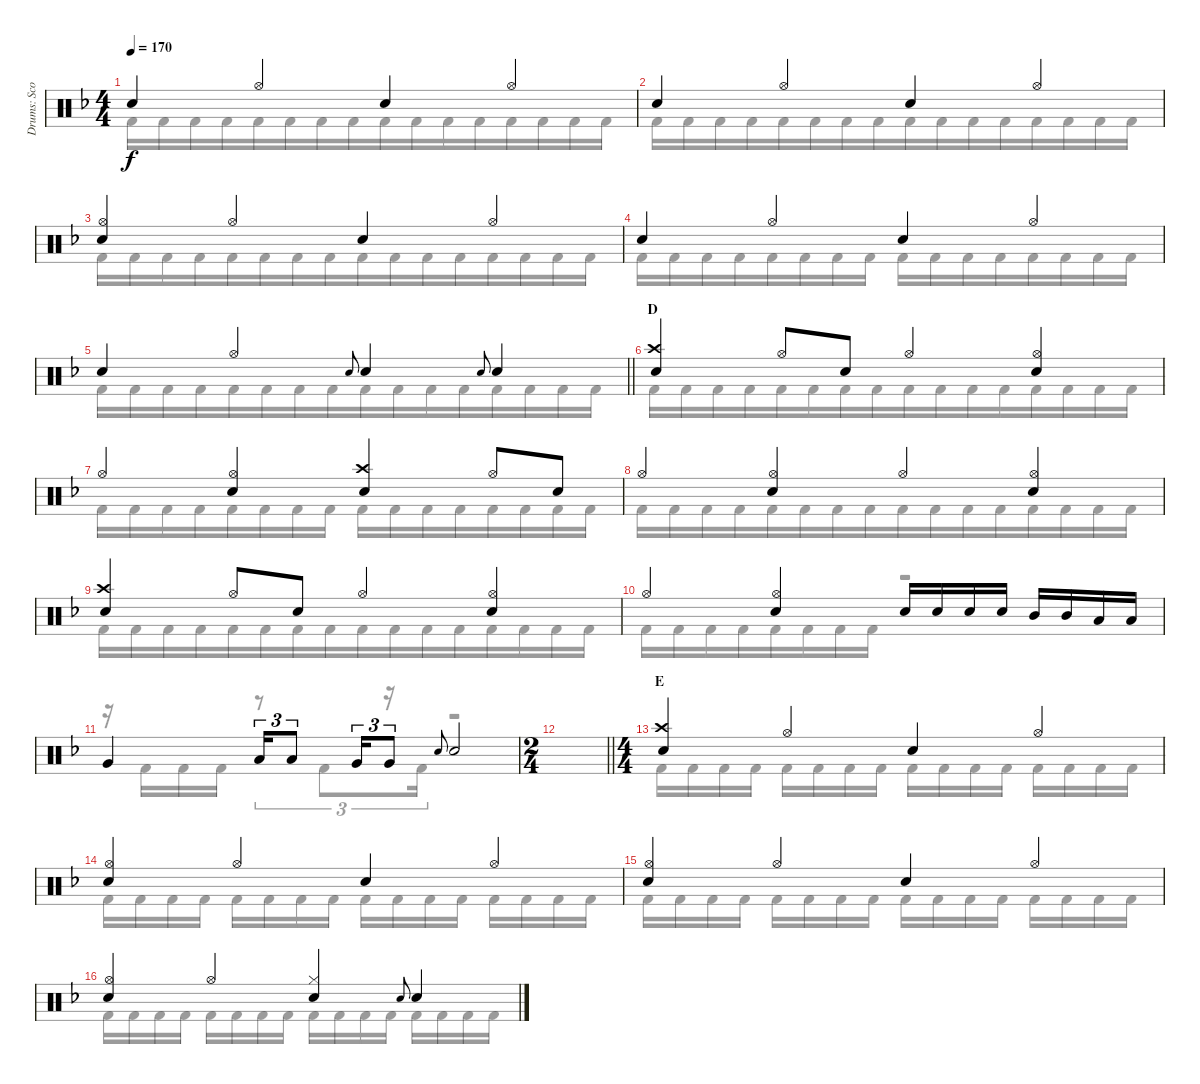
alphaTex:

\track ("Drums: Scott" "Drums: Sco") {instrument percussion}
\staff {score}
\articulation defaults
\voice
\ts (4 4)
\tempo 170
\clef neutral
\ks f "Snare (hit) 2".4{dy f} "Hi-Hat (open)".4 "Snare (hit) 2".4 "Hi-Hat (open)".4
|
"Snare (hit) 2".4 "Hi-Hat (open)".4 "Snare (hit) 2".4 "Hi-Hat (open)".4 |
("Hi-Hat (open)" "Snare (hit) 2").4 "Hi-Hat (open)".4 "Snare (hit) 2".4 "Hi-Hat (open)".4 |
"Snare (hit) 2".4 "Hi-Hat (open)".4 "Snare (hit) 2".4 "Hi-Hat (open)".4 |
\barLineRight lightlight "Snare (hit) 2".4 "Hi-Hat (open)".4 "Electric Snare (hit)".8{gr onbeat} "Snare (hit) 2".4 "Electric Snare (hit)".8{gr onbeat} "Snare (hit) 2".4
|
\section ("" "D")
("Crash high (hit)" "Snare (hit) 2").4 "Hi-Hat (open)".8 "Snare (hit) 2".8 "Hi-Hat (open)".4 ("Hi-Hat (open)" "Snare (hit) 2").4 |
"Hi-Hat (open)".4 ("Hi-Hat (open)" "Snare (hit) 2").4 ("Crash high (hit)" "Snare (hit) 2").4 "Hi-Hat (open)".8 "Snare (hit) 2".8 |
"Hi-Hat (open)".4 ("Hi-Hat (open)" "Snare (hit) 2").4 "Hi-Hat (open)".4 ("Hi-Hat (open)" "Snare (hit) 2").4 |
("Crash high (hit)" "Snare (hit) 2").4 "Hi-Hat (open)".8 "Snare (hit) 2".8 "Hi-Hat (open)".4 ("Hi-Hat (open)" "Snare (hit) 2").4 |
"Hi-Hat (open)".4 ("Hi-Hat (open)" "Snare (hit) 2").4 "Snare (hit) 2".16 "Snare (hit) 2".16{beam merge} "Snare (hit) 2".16 "Snare (hit) 2".16 "Mid Tom (hit)".16 "Mid Tom (hit)".16{beam merge} "Low Tom (hit)".16 "Low Tom (hit)".16 |
"Very Low Tom (hit)".4 "Low Tom (hit)".16{tu (3 2)} "Low Tom (hit)".8{tu (3 2)} "Very Low Tom (hit)".16{tu (3 2)} "Very Low Tom (hit)".8{tu (3 2)} "Electric Snare (hit)".8{gr onbeat} "Snare (hit) 2".2 |
\ts (2 4)
\barLineRight lightlight
|
\ts (4 4)
\section ("" "E")
("Crash high (hit)" "Snare (hit) 2").4 "Hi-Hat (open)".4 "Snare (hit) 2".4 "Hi-Hat (open)".4 |
("Hi-Hat (open)" "Snare (hit) 2").4 "Hi-Hat (open)".4 "Snare (hit) 2".4 "Hi-Hat (open)".4 |
("Hi-Hat (open)" "Snare (hit) 2").4 "Hi-Hat (open)".4 "Snare (hit) 2".4 "Hi-Hat (open)".4 |
("Hi-Hat (open)" "Snare (hit) 2").4 "Hi-Hat (open)".4 ("Hi-Hat (closed)" "Snare (hit) 2").4 "Electric Snare (hit)".8{gr onbeat} "Snare (hit) 2".4
\voice
\clef neutral
\ottava regular
\simile none
\ks f "Kick (hit) 2".16{dy f beam merge} "Kick (hit) 2".16{beam merge} "Kick (hit) 2".16{beam merge} "Kick (hit) 2".16{beam merge} "Kick (hit) 2".16{beam merge} "Kick (hit) 2".16{beam merge} "Kick (hit) 2".16{beam merge} "Kick (hit) 2".16{beam merge} "Kick (hit) 2".16{beam merge} "Kick (hit) 2".16{beam merge} "Kick (hit) 2".16{beam merge} "Kick (hit) 2".16{beam merge} "Kick (hit) 2".16{beam merge} "Kick (hit) 2".16{beam merge} "Kick (hit) 2".16{beam merge} "Kick (hit) 2".16
|
"Kick (hit) 2".16{beam merge} "Kick (hit) 2".16{beam merge} "Kick (hit) 2".16{beam merge} "Kick (hit) 2".16{beam merge} "Kick (hit) 2".16{beam merge} "Kick (hit) 2".16{beam merge} "Kick (hit) 2".16{beam merge} "Kick (hit) 2".16{beam merge} "Kick (hit) 2".16{beam merge} "Kick (hit) 2".16{beam merge} "Kick (hit) 2".16{beam merge} "Kick (hit) 2".16{beam merge} "Kick (hit) 2".16{beam merge} "Kick (hit) 2".16{beam merge} "Kick (hit) 2".16{beam merge} "Kick (hit) 2".16 |
"Kick (hit) 2".16{beam merge} "Kick (hit) 2".16{beam merge} "Kick (hit) 2".16{beam merge} "Kick (hit) 2".16{beam merge} "Kick (hit) 2".16{beam merge} "Kick (hit) 2".16{beam merge} "Kick (hit) 2".16{beam merge} "Kick (hit) 2".16{beam merge} "Kick (hit) 2".16{beam merge} "Kick (hit) 2".16{beam merge} "Kick (hit) 2".16{beam merge} "Kick (hit) 2".16{beam merge} "Kick (hit) 2".16{beam merge} "Kick (hit) 2".16{beam merge} "Kick (hit) 2".16{beam merge} "Kick (hit) 2".16 |
"Kick (hit) 2".16{beam merge} "Kick (hit) 2".16{beam merge} "Kick (hit) 2".16{beam merge} "Kick (hit) 2".16{beam merge} "Kick (hit) 2".16{beam merge} "Kick (hit) 2".16{beam merge} "Kick (hit) 2".16{beam merge} "Kick (hit) 2".16 "Kick (hit) 2".16{beam merge} "Kick (hit) 2".16{beam merge} "Kick (hit) 2".16{beam merge} "Kick (hit) 2".16{beam merge} "Kick (hit) 2".16{beam merge} "Kick (hit) 2".16{beam merge} "Kick (hit) 2".16{beam merge} "Kick (hit) 2".16 |
\barLineRight lightlight "Kick (hit) 2".16{beam merge} "Kick (hit) 2".16{beam merge} "Kick (hit) 2".16{beam merge} "Kick (hit) 2".16{beam merge} "Kick (hit) 2".16{beam merge} "Kick (hit) 2".16{beam merge} "Kick (hit) 2".16{beam merge} "Kick (hit) 2".16{beam merge} "Kick (hit) 2".16{beam merge} "Kick (hit) 2".16{beam merge} "Kick (hit) 2".16{beam merge} "Kick (hit) 2".16{beam merge} "Kick (hit) 2".16{beam merge} "Kick (hit) 2".16{beam merge} "Kick (hit) 2".16{beam merge} "Kick (hit) 2".16
|
"Kick (hit) 2".16{beam merge} "Kick (hit) 2".16{beam merge} "Kick (hit) 2".16{beam merge} "Kick (hit) 2".16{beam merge} "Kick (hit) 2".16{beam merge} "Kick (hit) 2".16{beam merge} "Kick (hit) 2".16{beam merge} "Kick (hit) 2".16{beam merge} "Kick (hit) 2".16{beam merge} "Kick (hit) 2".16{beam merge} "Kick (hit) 2".16{beam merge} "Kick (hit) 2".16{beam merge} "Kick (hit) 2".16{beam merge} "Kick (hit) 2".16{beam merge} "Kick (hit) 2".16{beam merge} "Kick (hit) 2".16 |
"Kick (hit) 2".16{beam merge} "Kick (hit) 2".16{beam merge} "Kick (hit) 2".16{beam merge} "Kick (hit) 2".16{beam merge} "Kick (hit) 2".16{beam merge} "Kick (hit) 2".16{beam merge} "Kick (hit) 2".16{beam merge} "Kick (hit) 2".16 "Kick (hit) 2".16{beam merge} "Kick (hit) 2".16{beam merge} "Kick (hit) 2".16{beam merge} "Kick (hit) 2".16{beam merge} "Kick (hit) 2".16{beam merge} "Kick (hit) 2".16{beam merge} "Kick (hit) 2".16{beam merge} "Kick (hit) 2".16 |
"Kick (hit) 2".16{beam merge} "Kick (hit) 2".16{beam merge} "Kick (hit) 2".16{beam merge} "Kick (hit) 2".16{beam merge} "Kick (hit) 2".16{beam merge} "Kick (hit) 2".16{beam merge} "Kick (hit) 2".16{beam merge} "Kick (hit) 2".16{beam merge} "Kick (hit) 2".16{beam merge} "Kick (hit) 2".16{beam merge} "Kick (hit) 2".16{beam merge} "Kick (hit) 2".16{beam merge} "Kick (hit) 2".16{beam merge} "Kick (hit) 2".16{beam merge} "Kick (hit) 2".16{beam merge} "Kick (hit) 2".16 |
"Kick (hit) 2".16{beam merge} "Kick (hit) 2".16{beam merge} "Kick (hit) 2".16{beam merge} "Kick (hit) 2".16{beam merge} "Kick (hit) 2".16{beam merge} "Kick (hit) 2".16{beam merge} "Kick (hit) 2".16{beam merge} "Kick (hit) 2".16{beam merge} "Kick (hit) 2".16{beam merge} "Kick (hit) 2".16{beam merge} "Kick (hit) 2".16{beam merge} "Kick (hit) 2".16{beam merge} "Kick (hit) 2".16{beam merge} "Kick (hit) 2".16{beam merge} "Kick (hit) 2".16{beam merge} "Kick (hit) 2".16 |
"Kick (hit) 2".16{beam merge} "Kick (hit) 2".16{beam merge} "Kick (hit) 2".16{beam merge} "Kick (hit) 2".16{beam merge} "Kick (hit) 2".16{beam merge} "Kick (hit) 2".16{beam merge} "Kick (hit) 2".16{beam merge} "Kick (hit) 2".16 r.2 |
r.16 "Kick (hit) 2".16 "Kick (hit) 2".16 "Kick (hit) 2".16 r.8{tu (3 2)} "Kick (hit) 2".8{tu (3 2)} r.16{tu (3 2)} "Kick (hit) 2".16{tu (3 2)} r.2 |
\barLineRight lightlight
|
"Kick (hit) 2".16 "Kick (hit) 2".16{beam merge} "Kick (hit) 2".16 "Kick (hit) 2".16 "Kick (hit) 2".16 "Kick (hit) 2".16{beam merge} "Kick (hit) 2".16 "Kick (hit) 2".16 "Kick (hit) 2".16 "Kick (hit) 2".16{beam merge} "Kick (hit) 2".16 "Kick (hit) 2".16 "Kick (hit) 2".16 "Kick (hit) 2".16{beam merge} "Kick (hit) 2".16 "Kick (hit) 2".16 |
"Kick (hit) 2".16 "Kick (hit) 2".16{beam merge} "Kick (hit) 2".16 "Kick (hit) 2".16 "Kick (hit) 2".16 "Kick (hit) 2".16{beam merge} "Kick (hit) 2".16 "Kick (hit) 2".16 "Kick (hit) 2".16 "Kick (hit) 2".16{beam merge} "Kick (hit) 2".16 "Kick (hit) 2".16 "Kick (hit) 2".16 "Kick (hit) 2".16{beam merge} "Kick (hit) 2".16 "Kick (hit) 2".16 |
"Kick (hit) 2".16 "Kick (hit) 2".16{beam merge} "Kick (hit) 2".16 "Kick (hit) 2".16 "Kick (hit) 2".16 "Kick (hit) 2".16{beam merge} "Kick (hit) 2".16 "Kick (hit) 2".16 "Kick (hit) 2".16 "Kick (hit) 2".16{beam merge} "Kick (hit) 2".16 "Kick (hit) 2".16 "Kick (hit) 2".16 "Kick (hit) 2".16{beam merge} "Kick (hit) 2".16 "Kick (hit) 2".16 |
"Kick (hit) 2".16 "Kick (hit) 2".16{beam merge} "Kick (hit) 2".16 "Kick (hit) 2".16 "Kick (hit) 2".16 "Kick (hit) 2".16{beam merge} "Kick (hit) 2".16 "Kick (hit) 2".16 "Kick (hit) 2".16 "Kick (hit) 2".16{beam merge} "Kick (hit) 2".16 "Kick (hit) 2".16 "Kick (hit) 2".16 "Kick (hit) 2".16{beam merge} "Kick (hit) 2".16 "Kick (hit) 2".16
